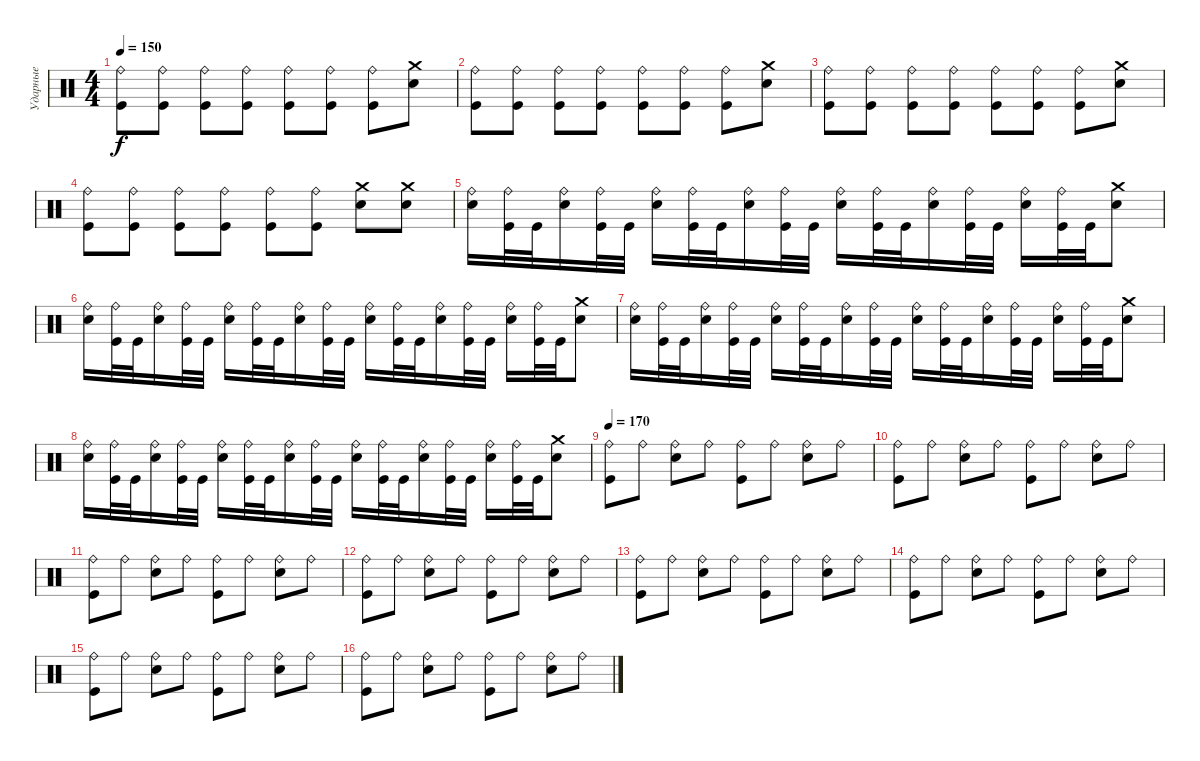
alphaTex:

\track ("Ударные" "Ударные") {instrument percussion}
\staff {score}
\articulation defaults
\ts (4 4)
\tempo 150
\clef neutral
\ks c
("Ride (bell)" "Kick (hit)").8{dy f} ("Ride (bell)" "Kick (hit)").8 ("Ride (bell)" "Kick (hit)").8 ("Ride (bell)" "Kick (hit)").8 ("Ride (bell)" "Kick (hit)").8 ("Ride (bell)" "Kick (hit)").8 ("Ride (bell)" "Kick (hit)").8 ("Crash medium (hit)" "Snare (hit) 2").8 |
("Ride (bell)" "Kick (hit)").8 ("Ride (bell)" "Kick (hit)").8 ("Ride (bell)" "Kick (hit)").8 ("Ride (bell)" "Kick (hit)").8 ("Ride (bell)" "Kick (hit)").8 ("Ride (bell)" "Kick (hit)").8 ("Ride (bell)" "Kick (hit)").8 ("Crash medium (hit)" "Snare (hit) 2").8 |
("Ride (bell)" "Kick (hit)").8 ("Ride (bell)" "Kick (hit)").8 ("Ride (bell)" "Kick (hit)").8 ("Ride (bell)" "Kick (hit)").8 ("Ride (bell)" "Kick (hit)").8 ("Ride (bell)" "Kick (hit)").8 ("Ride (bell)" "Kick (hit)").8 ("Crash medium (hit)" "Snare (hit) 2").8 |
("Ride (bell)" "Kick (hit)").8 ("Ride (bell)" "Kick (hit)").8 ("Ride (bell)" "Kick (hit)").8 ("Ride (bell)" "Kick (hit)").8 ("Ride (bell)" "Kick (hit)").8 ("Ride (bell)" "Kick (hit)").8 ("Crash medium (hit)" "Snare (hit) 2").8 ("Crash medium (hit)" "Snare (hit) 2").8 |
("Ride (bell)" "Snare (hit) 2").16 ("Ride (bell)" "Kick (hit)").32 "Kick (hit)".32 ("Ride (bell)" "Snare (hit) 2").16 ("Ride (bell)" "Kick (hit)").32 "Kick (hit)".32 ("Ride (bell)" "Snare (hit) 2").16 ("Ride (bell)" "Kick (hit)").32 "Kick (hit)".32 ("Ride (bell)" "Snare (hit) 2").16 ("Ride (bell)" "Kick (hit)").32 "Kick (hit)".32 ("Ride (bell)" "Snare (hit) 2").16 ("Ride (bell)" "Kick (hit)").32 "Kick (hit)".32 ("Ride (bell)" "Snare (hit) 2").16 ("Ride (bell)" "Kick (hit)").32 "Kick (hit)".32 ("Ride (bell)" "Snare (hit) 2").16 ("Ride (bell)" "Kick (hit)").32 "Kick (hit)".32 ("Crash medium (hit)" "Snare (hit) 2").8 |
("Ride (bell)" "Snare (hit) 2").16 ("Ride (bell)" "Kick (hit)").32 "Kick (hit)".32 ("Ride (bell)" "Snare (hit) 2").16 ("Ride (bell)" "Kick (hit)").32 "Kick (hit)".32 ("Ride (bell)" "Snare (hit) 2").16 ("Ride (bell)" "Kick (hit)").32 "Kick (hit)".32 ("Ride (bell)" "Snare (hit) 2").16 ("Ride (bell)" "Kick (hit)").32 "Kick (hit)".32 ("Ride (bell)" "Snare (hit) 2").16 ("Ride (bell)" "Kick (hit)").32 "Kick (hit)".32 ("Ride (bell)" "Snare (hit) 2").16 ("Ride (bell)" "Kick (hit)").32 "Kick (hit)".32 ("Ride (bell)" "Snare (hit) 2").16 ("Ride (bell)" "Kick (hit)").32 "Kick (hit)".32 ("Crash medium (hit)" "Snare (hit) 2").8 |
("Ride (bell)" "Snare (hit) 2").16 ("Ride (bell)" "Kick (hit)").32 "Kick (hit)".32 ("Ride (bell)" "Snare (hit) 2").16 ("Ride (bell)" "Kick (hit)").32 "Kick (hit)".32 ("Ride (bell)" "Snare (hit) 2").16 ("Ride (bell)" "Kick (hit)").32 "Kick (hit)".32 ("Ride (bell)" "Snare (hit) 2").16 ("Ride (bell)" "Kick (hit)").32 "Kick (hit)".32 ("Ride (bell)" "Snare (hit) 2").16 ("Ride (bell)" "Kick (hit)").32 "Kick (hit)".32 ("Ride (bell)" "Snare (hit) 2").16 ("Ride (bell)" "Kick (hit)").32 "Kick (hit)".32 ("Ride (bell)" "Snare (hit) 2").16 ("Ride (bell)" "Kick (hit)").32 "Kick (hit)".32 ("Crash medium (hit)" "Snare (hit) 2").8 |
("Ride (bell)" "Snare (hit) 2").16 ("Ride (bell)" "Kick (hit)").32 "Kick (hit)".32 ("Ride (bell)" "Snare (hit) 2").16 ("Ride (bell)" "Kick (hit)").32 "Kick (hit)".32 ("Ride (bell)" "Snare (hit) 2").16 ("Ride (bell)" "Kick (hit)").32 "Kick (hit)".32 ("Ride (bell)" "Snare (hit) 2").16 ("Ride (bell)" "Kick (hit)").32 "Kick (hit)".32 ("Ride (bell)" "Snare (hit) 2").16 ("Ride (bell)" "Kick (hit)").32 "Kick (hit)".32 ("Ride (bell)" "Snare (hit) 2").16 ("Ride (bell)" "Kick (hit)").32 "Kick (hit)".32 ("Ride (bell)" "Snare (hit) 2").16 ("Ride (bell)" "Kick (hit)").32 "Kick (hit)".32 ("Crash medium (hit)" "Snare (hit) 2").8 |
\tempo 170
("Ride (bell)" "Kick (hit)").8 "Ride (bell)".8 ("Ride (bell)" "Snare (hit) 2").8 "Ride (bell)".8 ("Ride (bell)" "Kick (hit)").8 "Ride (bell)".8 ("Ride (bell)" "Snare (hit) 2").8 "Ride (bell)".8 |
("Ride (bell)" "Kick (hit)").8 "Ride (bell)".8 ("Ride (bell)" "Snare (hit) 2").8 "Ride (bell)".8 ("Ride (bell)" "Kick (hit)").8 "Ride (bell)".8 ("Ride (bell)" "Snare (hit) 2").8 "Ride (bell)".8 |
("Ride (bell)" "Kick (hit)").8 "Ride (bell)".8 ("Ride (bell)" "Snare (hit) 2").8 "Ride (bell)".8 ("Ride (bell)" "Kick (hit)").8 "Ride (bell)".8 ("Ride (bell)" "Snare (hit) 2").8 "Ride (bell)".8 |
("Ride (bell)" "Kick (hit)").8 "Ride (bell)".8 ("Ride (bell)" "Snare (hit) 2").8 "Ride (bell)".8 ("Ride (bell)" "Kick (hit)").8 "Ride (bell)".8 ("Ride (bell)" "Snare (hit) 2").8 "Ride (bell)".8 |
("Ride (bell)" "Kick (hit)").8 "Ride (bell)".8 ("Ride (bell)" "Snare (hit) 2").8 "Ride (bell)".8 ("Ride (bell)" "Kick (hit)").8 "Ride (bell)".8 ("Ride (bell)" "Snare (hit) 2").8 "Ride (bell)".8 |
("Ride (bell)" "Kick (hit)").8 "Ride (bell)".8 ("Ride (bell)" "Snare (hit) 2").8 "Ride (bell)".8 ("Ride (bell)" "Kick (hit)").8 "Ride (bell)".8 ("Ride (bell)" "Snare (hit) 2").8 "Ride (bell)".8 |
("Ride (bell)" "Kick (hit)").8 "Ride (bell)".8 ("Ride (bell)" "Snare (hit) 2").8 "Ride (bell)".8 ("Ride (bell)" "Kick (hit)").8 "Ride (bell)".8 ("Ride (bell)" "Snare (hit) 2").8 "Ride (bell)".8 |
("Ride (bell)" "Kick (hit)").8 "Ride (bell)".8 ("Ride (bell)" "Snare (hit) 2").8 "Ride (bell)".8 ("Ride (bell)" "Kick (hit)").8 "Ride (bell)".8 ("Ride (bell)" "Snare (hit) 2").8 "Ride (bell)".8
